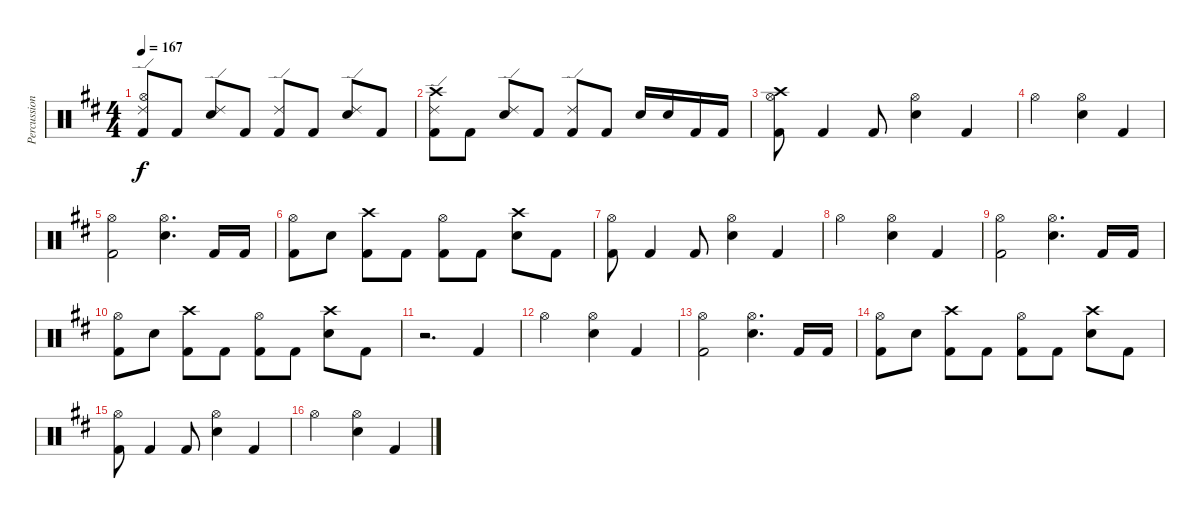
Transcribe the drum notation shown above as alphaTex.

\track ("Percussion" "Percussion") {instrument percussion}
\staff {score}
\articulation defaults
\ts (4 4)
\tempo 167
\clef neutral
\ks d
("Ride (edge) 2" "Hi-Hat (open)" "Kick (hit) 2").8{dy f} "Kick (hit) 2".8 ("Ride (edge) 2" "Electric Snare (hit)").8 "Kick (hit) 2".8 ("Ride (edge) 2" "Kick (hit) 2").8 "Kick (hit) 2".8 ("Ride (edge) 2" "Electric Snare (hit)").8 "Kick (hit) 2".8 |
("Ride (edge) 2" "Crash high (hit)" "Kick (hit) 2").8 "Kick (hit) 2".8 ("Ride (edge) 2" "Electric Snare (hit)").8 "Kick (hit) 2".8 ("Ride (edge) 2" "Kick (hit) 2").8 "Kick (hit) 2".8 "Electric Snare (hit)".16 "Electric Snare (hit)".16 "Kick (hit) 2".16 "Kick (hit) 2".16 |
("Hi-Hat (open)" "Crash high (hit)" "Kick (hit) 2").8 "Kick (hit) 2".4 "Kick (hit) 2".8 ("Hi-Hat (open)" "Electric Snare (hit)").4 "Kick (hit) 2".4 |
"Hi-Hat (open)".2 ("Hi-Hat (open)" "Electric Snare (hit)").4 "Kick (hit) 2".4 |
("Hi-Hat (open)" "Kick (hit) 2").2 ("Hi-Hat (open)" "Electric Snare (hit)").4{d} "Kick (hit) 2".16 "Kick (hit) 2".16 |
("Hi-Hat (open)" "Kick (hit) 2").8 "Electric Snare (hit)".8 ("Crash high (hit)" "Kick (hit) 2").8 "Kick (hit) 2".8 ("Hi-Hat (open)" "Kick (hit) 2").8 "Kick (hit) 2".8 ("Crash high (hit)" "Electric Snare (hit)").8 "Kick (hit) 2".8 |
("Hi-Hat (open)" "Kick (hit) 2").8 "Kick (hit) 2".4 "Kick (hit) 2".8 ("Hi-Hat (open)" "Electric Snare (hit)").4 "Kick (hit) 2".4 |
"Hi-Hat (open)".2 ("Hi-Hat (open)" "Electric Snare (hit)").4 "Kick (hit) 2".4 |
("Hi-Hat (open)" "Kick (hit) 2").2 ("Hi-Hat (open)" "Electric Snare (hit)").4{d} "Kick (hit) 2".16 "Kick (hit) 2".16 |
("Hi-Hat (open)" "Kick (hit) 2").8 "Electric Snare (hit)".8 ("Crash high (hit)" "Kick (hit) 2").8 "Kick (hit) 2".8 ("Hi-Hat (open)" "Kick (hit) 2").8 "Kick (hit) 2".8 ("Crash high (hit)" "Electric Snare (hit)").8 "Kick (hit) 2".8 |
r.2{d} "Kick (hit) 2".4 |
"Hi-Hat (open)".2 ("Hi-Hat (open)" "Electric Snare (hit)").4 "Kick (hit) 2".4 |
("Hi-Hat (open)" "Kick (hit) 2").2 ("Hi-Hat (open)" "Electric Snare (hit)").4{d} "Kick (hit) 2".16 "Kick (hit) 2".16 |
("Hi-Hat (open)" "Kick (hit) 2").8 "Electric Snare (hit)".8 ("Crash high (hit)" "Kick (hit) 2").8 "Kick (hit) 2".8 ("Hi-Hat (open)" "Kick (hit) 2").8 "Kick (hit) 2".8 ("Crash high (hit)" "Electric Snare (hit)").8 "Kick (hit) 2".8 |
("Hi-Hat (open)" "Kick (hit) 2").8 "Kick (hit) 2".4 "Kick (hit) 2".8 ("Hi-Hat (open)" "Electric Snare (hit)").4 "Kick (hit) 2".4 |
"Hi-Hat (open)".2 ("Hi-Hat (open)" "Electric Snare (hit)").4 "Kick (hit) 2".4
